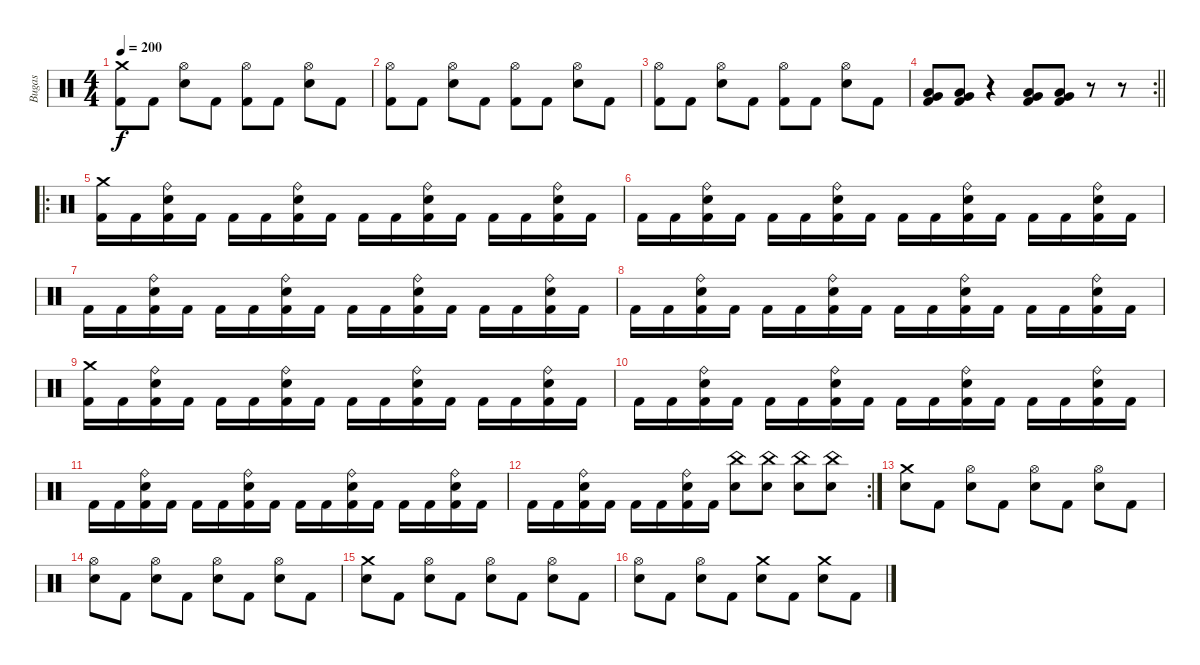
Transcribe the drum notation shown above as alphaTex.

\track ("Bugas" "Bugas") {instrument percussion}
\staff {score}
\articulation defaults
\ts (4 4)
\tempo 200
\clef neutral
\ks c
("Crash medium (hit)" "Kick (hit) 2").8{dy f} "Kick (hit) 2".8 ("Hi-Hat (open)" "Electric Snare (hit)").8 "Kick (hit) 2".8 ("Hi-Hat (open)" "Kick (hit) 2").8 "Kick (hit) 2".8 ("Hi-Hat (open)" "Electric Snare (hit)").8 "Kick (hit) 2".8 |
("Hi-Hat (open)" "Kick (hit) 2").8 "Kick (hit) 2".8 ("Hi-Hat (open)" "Electric Snare (hit)").8 "Kick (hit) 2".8 ("Hi-Hat (open)" "Kick (hit) 2").8 "Kick (hit) 2".8 ("Hi-Hat (open)" "Electric Snare (hit)").8 "Kick (hit) 2".8 |
("Hi-Hat (open)" "Kick (hit) 2").8 "Kick (hit) 2".8 ("Hi-Hat (open)" "Electric Snare (hit)").8 "Kick (hit) 2".8 ("Hi-Hat (open)" "Kick (hit) 2").8 "Kick (hit) 2".8 ("Hi-Hat (open)" "Electric Snare (hit)").8 "Kick (hit) 2".8 |
\rc 2
\barLineRight lightlight
("Very Low Tom (hit)" "Low Tom (hit)" "Kick (hit) 2").8 ("Very Low Tom (hit)" "Low Tom (hit)" "Kick (hit) 2").8 r.4 ("Very Low Tom (hit)" "Low Tom (hit)" "Kick (hit) 2").8 ("Very Low Tom (hit)" "Low Tom (hit)" "Kick (hit) 2").8 r.8 r.8 |
\ro
("Crash medium (hit)" "Kick (hit) 2").16 "Kick (hit) 2".16 ("Ride (bell)" "Electric Snare (hit)" "Kick (hit) 2").16 "Kick (hit) 2".16 "Kick (hit) 2".16 "Kick (hit) 2".16 ("Ride (bell)" "Electric Snare (hit)" "Kick (hit) 2").16 "Kick (hit) 2".16 "Kick (hit) 2".16 "Kick (hit) 2".16 ("Ride (bell)" "Electric Snare (hit)" "Kick (hit) 2").16 "Kick (hit) 2".16 "Kick (hit) 2".16 "Kick (hit) 2".16 ("Ride (bell)" "Electric Snare (hit)" "Kick (hit) 2").16 "Kick (hit) 2".16 |
"Kick (hit) 2".16 "Kick (hit) 2".16 ("Ride (bell)" "Electric Snare (hit)" "Kick (hit) 2").16 "Kick (hit) 2".16 "Kick (hit) 2".16 "Kick (hit) 2".16 ("Ride (bell)" "Electric Snare (hit)" "Kick (hit) 2").16 "Kick (hit) 2".16 "Kick (hit) 2".16 "Kick (hit) 2".16 ("Ride (bell)" "Electric Snare (hit)" "Kick (hit) 2").16 "Kick (hit) 2".16 "Kick (hit) 2".16 "Kick (hit) 2".16 ("Ride (bell)" "Electric Snare (hit)" "Kick (hit) 2").16 "Kick (hit) 2".16 |
"Kick (hit) 2".16 "Kick (hit) 2".16 ("Ride (bell)" "Electric Snare (hit)" "Kick (hit) 2").16 "Kick (hit) 2".16 "Kick (hit) 2".16 "Kick (hit) 2".16 ("Ride (bell)" "Electric Snare (hit)" "Kick (hit) 2").16 "Kick (hit) 2".16 "Kick (hit) 2".16 "Kick (hit) 2".16 ("Ride (bell)" "Electric Snare (hit)" "Kick (hit) 2").16 "Kick (hit) 2".16 "Kick (hit) 2".16 "Kick (hit) 2".16 ("Ride (bell)" "Electric Snare (hit)" "Kick (hit) 2").16 "Kick (hit) 2".16 |
"Kick (hit) 2".16 "Kick (hit) 2".16 ("Ride (bell)" "Electric Snare (hit)" "Kick (hit) 2").16 "Kick (hit) 2".16 "Kick (hit) 2".16 "Kick (hit) 2".16 ("Ride (bell)" "Electric Snare (hit)" "Kick (hit) 2").16 "Kick (hit) 2".16 "Kick (hit) 2".16 "Kick (hit) 2".16 ("Ride (bell)" "Electric Snare (hit)" "Kick (hit) 2").16 "Kick (hit) 2".16 "Kick (hit) 2".16 "Kick (hit) 2".16 ("Ride (bell)" "Electric Snare (hit)" "Kick (hit) 2").16 "Kick (hit) 2".16 |
("Crash medium (hit)" "Kick (hit) 2").16 "Kick (hit) 2".16 ("Ride (bell)" "Electric Snare (hit)" "Kick (hit) 2").16 "Kick (hit) 2".16 "Kick (hit) 2".16 "Kick (hit) 2".16 ("Ride (bell)" "Electric Snare (hit)" "Kick (hit) 2").16 "Kick (hit) 2".16 "Kick (hit) 2".16 "Kick (hit) 2".16 ("Ride (bell)" "Electric Snare (hit)" "Kick (hit) 2").16 "Kick (hit) 2".16 "Kick (hit) 2".16 "Kick (hit) 2".16 ("Ride (bell)" "Electric Snare (hit)" "Kick (hit) 2").16 "Kick (hit) 2".16 |
"Kick (hit) 2".16 "Kick (hit) 2".16 ("Ride (bell)" "Electric Snare (hit)" "Kick (hit) 2").16 "Kick (hit) 2".16 "Kick (hit) 2".16 "Kick (hit) 2".16 ("Ride (bell)" "Electric Snare (hit)" "Kick (hit) 2").16 "Kick (hit) 2".16 "Kick (hit) 2".16 "Kick (hit) 2".16 ("Ride (bell)" "Electric Snare (hit)" "Kick (hit) 2").16 "Kick (hit) 2".16 "Kick (hit) 2".16 "Kick (hit) 2".16 ("Ride (bell)" "Electric Snare (hit)" "Kick (hit) 2").16 "Kick (hit) 2".16 |
"Kick (hit) 2".16 "Kick (hit) 2".16 ("Ride (bell)" "Electric Snare (hit)" "Kick (hit) 2").16 "Kick (hit) 2".16 "Kick (hit) 2".16 "Kick (hit) 2".16 ("Ride (bell)" "Electric Snare (hit)" "Kick (hit) 2").16 "Kick (hit) 2".16 "Kick (hit) 2".16 "Kick (hit) 2".16 ("Ride (bell)" "Electric Snare (hit)" "Kick (hit) 2").16 "Kick (hit) 2".16 "Kick (hit) 2".16 "Kick (hit) 2".16 ("Ride (bell)" "Electric Snare (hit)" "Kick (hit) 2").16 "Kick (hit) 2".16 |
\rc 2 "Kick (hit) 2".16 "Kick (hit) 2".16
("Ride (bell)" "Electric Snare (hit)" "Kick (hit) 2").16 "Kick (hit) 2".16 "Kick (hit) 2".16 "Kick (hit) 2".16 ("Ride (bell)" "Electric Snare (hit)" "Kick (hit) 2").16 "Kick (hit) 2".16 ("China (hit)" "Electric Snare (hit)").8 ("China (hit)" "Electric Snare (hit)").8 ("China (hit)" "Electric Snare (hit)").8 ("China (hit)" "Electric Snare (hit)").8 |
("Crash medium (hit)" "Electric Snare (hit)").8 "Kick (hit) 2".8 ("Hi-Hat (open)" "Electric Snare (hit)").8 "Kick (hit) 2".8 ("Hi-Hat (open)" "Electric Snare (hit)").8 "Kick (hit) 2".8 ("Hi-Hat (open)" "Electric Snare (hit)").8 "Kick (hit) 2".8 |
("Hi-Hat (open)" "Electric Snare (hit)").8 "Kick (hit) 2".8 ("Hi-Hat (open)" "Electric Snare (hit)").8 "Kick (hit) 2".8 ("Hi-Hat (open)" "Electric Snare (hit)").8 "Kick (hit) 2".8 ("Hi-Hat (open)" "Electric Snare (hit)").8 "Kick (hit) 2".8 |
("Crash medium (hit)" "Electric Snare (hit)").8 "Kick (hit) 2".8 ("Hi-Hat (open)" "Electric Snare (hit)").8 "Kick (hit) 2".8 ("Hi-Hat (open)" "Electric Snare (hit)").8 "Kick (hit) 2".8 ("Hi-Hat (open)" "Electric Snare (hit)").8 "Kick (hit) 2".8 |
("Hi-Hat (open)" "Electric Snare (hit)").8 "Kick (hit) 2".8 ("Hi-Hat (open)" "Electric Snare (hit)").8 "Kick (hit) 2".8 ("Crash medium (hit)" "Electric Snare (hit)").8 "Kick (hit) 2".8 ("Crash medium (hit)" "Electric Snare (hit)").8 "Kick (hit) 2".8
